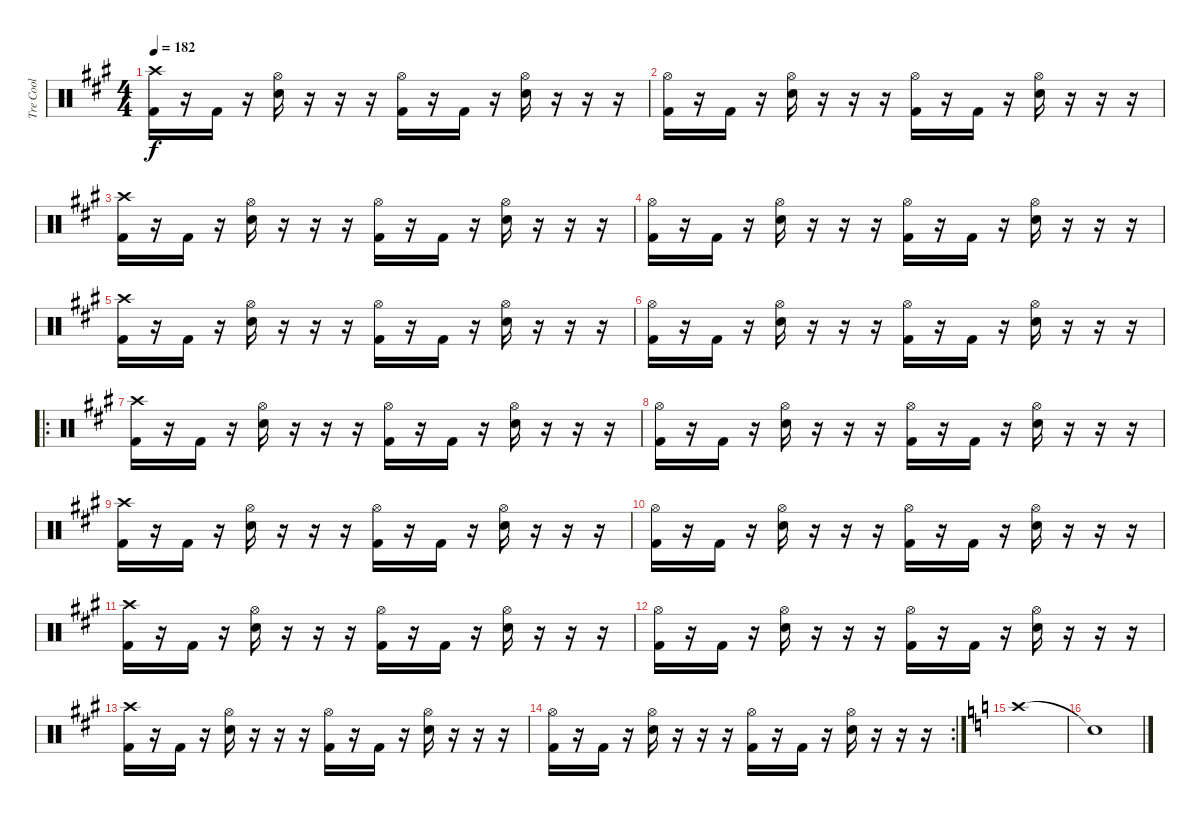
\track ("Tre Cool" "Tre Cool") {instrument percussion}
\staff {score}
\articulation defaults
\ts (4 4)
\tempo 182
\clef neutral
\ks a
("Crash high (hit)" "Kick (hit) 2").16{dy f} r.16 "Kick (hit) 2".16 r.16 ("Hi-Hat (open)" "Snare (hit) 2").16 r.16 r.16 r.16 ("Hi-Hat (open)" "Kick (hit) 2").16 r.16 "Kick (hit) 2".16 r.16 ("Hi-Hat (open)" "Snare (hit) 2").16 r.16 r.16 r.16 |
("Hi-Hat (open)" "Kick (hit) 2").16 r.16 "Kick (hit) 2".16 r.16 ("Hi-Hat (open)" "Snare (hit) 2").16 r.16 r.16 r.16 ("Hi-Hat (open)" "Kick (hit) 2").16 r.16 "Kick (hit) 2".16 r.16 ("Hi-Hat (open)" "Snare (hit) 2").16 r.16 r.16 r.16 |
("Crash high (hit)" "Kick (hit) 2").16 r.16 "Kick (hit) 2".16 r.16 ("Hi-Hat (open)" "Snare (hit) 2").16 r.16 r.16 r.16 ("Hi-Hat (open)" "Kick (hit) 2").16 r.16 "Kick (hit) 2".16 r.16 ("Hi-Hat (open)" "Snare (hit) 2").16 r.16 r.16 r.16 |
("Hi-Hat (open)" "Kick (hit) 2").16 r.16 "Kick (hit) 2".16 r.16 ("Hi-Hat (open)" "Snare (hit) 2").16 r.16 r.16 r.16 ("Hi-Hat (open)" "Kick (hit) 2").16 r.16 "Kick (hit) 2".16 r.16 ("Hi-Hat (open)" "Snare (hit) 2").16 r.16 r.16 r.16 |
("Crash high (hit)" "Kick (hit) 2").16 r.16 "Kick (hit) 2".16 r.16 ("Hi-Hat (open)" "Snare (hit) 2").16 r.16 r.16 r.16 ("Hi-Hat (open)" "Kick (hit) 2").16 r.16 "Kick (hit) 2".16 r.16 ("Hi-Hat (open)" "Snare (hit) 2").16 r.16 r.16 r.16 |
("Hi-Hat (open)" "Kick (hit) 2").16 r.16 "Kick (hit) 2".16 r.16 ("Hi-Hat (open)" "Snare (hit) 2").16 r.16 r.16 r.16 ("Hi-Hat (open)" "Kick (hit) 2").16 r.16 "Kick (hit) 2".16 r.16 ("Hi-Hat (open)" "Snare (hit) 2").16 r.16 r.16 r.16 |
\ro
("Crash high (hit)" "Kick (hit) 2").16 r.16 "Kick (hit) 2".16 r.16 ("Hi-Hat (open)" "Snare (hit) 2").16 r.16 r.16 r.16 ("Hi-Hat (open)" "Kick (hit) 2").16 r.16 "Kick (hit) 2".16 r.16 ("Hi-Hat (open)" "Snare (hit) 2").16 r.16 r.16 r.16 |
("Hi-Hat (open)" "Kick (hit) 2").16 r.16 "Kick (hit) 2".16 r.16 ("Hi-Hat (open)" "Snare (hit) 2").16 r.16 r.16 r.16 ("Hi-Hat (open)" "Kick (hit) 2").16 r.16 "Kick (hit) 2".16 r.16 ("Hi-Hat (open)" "Snare (hit) 2").16 r.16 r.16 r.16 |
("Crash high (hit)" "Kick (hit) 2").16 r.16 "Kick (hit) 2".16 r.16 ("Hi-Hat (open)" "Snare (hit) 2").16 r.16 r.16 r.16 ("Hi-Hat (open)" "Kick (hit) 2").16 r.16 "Kick (hit) 2".16 r.16 ("Hi-Hat (open)" "Snare (hit) 2").16 r.16 r.16 r.16 |
("Hi-Hat (open)" "Kick (hit) 2").16 r.16 "Kick (hit) 2".16 r.16 ("Hi-Hat (open)" "Snare (hit) 2").16 r.16 r.16 r.16 ("Hi-Hat (open)" "Kick (hit) 2").16 r.16 "Kick (hit) 2".16 r.16 ("Hi-Hat (open)" "Snare (hit) 2").16 r.16 r.16 r.16 |
("Crash high (hit)" "Kick (hit) 2").16 r.16 "Kick (hit) 2".16 r.16 ("Hi-Hat (open)" "Snare (hit) 2").16 r.16 r.16 r.16 ("Hi-Hat (open)" "Kick (hit) 2").16 r.16 "Kick (hit) 2".16 r.16 ("Hi-Hat (open)" "Snare (hit) 2").16 r.16 r.16 r.16 |
("Hi-Hat (open)" "Kick (hit) 2").16 r.16 "Kick (hit) 2".16 r.16 ("Hi-Hat (open)" "Snare (hit) 2").16 r.16 r.16 r.16 ("Hi-Hat (open)" "Kick (hit) 2").16 r.16 "Kick (hit) 2".16 r.16 ("Hi-Hat (open)" "Snare (hit) 2").16 r.16 r.16 r.16 |
("Crash high (hit)" "Kick (hit) 2").16 r.16 "Kick (hit) 2".16 r.16 ("Hi-Hat (open)" "Snare (hit) 2").16 r.16 r.16 r.16 ("Hi-Hat (open)" "Kick (hit) 2").16 r.16 "Kick (hit) 2".16 r.16 ("Hi-Hat (open)" "Snare (hit) 2").16 r.16 r.16 r.16 |
\rc 2
("Hi-Hat (open)" "Kick (hit) 2").16 r.16 "Kick (hit) 2".16 r.16 ("Hi-Hat (open)" "Snare (hit) 2").16 r.16 r.16 r.16 ("Hi-Hat (open)" "Kick (hit) 2").16 r.16 "Kick (hit) 2".16 r.16 ("Hi-Hat (open)" "Snare (hit) 2").16 r.16 r.16 r.16 |
\ks c "Crash high (hit)".1
|
"Snare (hit)"{t}.1
